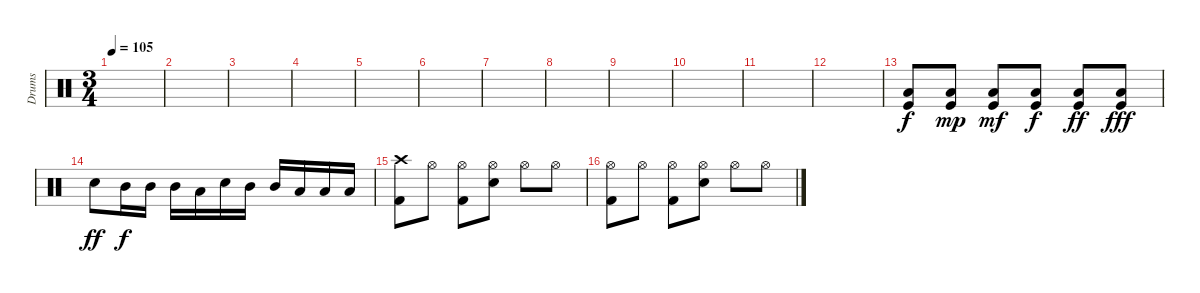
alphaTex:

\track ("Drums" "Drums") {instrument percussion}
\staff {score}
\articulation defaults
\ts (3 4)
\tempo 105
\clef neutral
\ks c
|
|
|
|
|
|
|
|
|
|
|
|
("Low Tom (hit)" "Kick (hit)").8 ("Low Tom (hit)" "Kick (hit)").8{dy mp} ("Low Tom (hit)" "Kick (hit)").8{dy mf} ("Low Tom (hit)" "Kick (hit)").8{dy f} ("Low Tom (hit)" "Kick (hit)").8{dy ff} ("Low Tom (hit)" "Kick (hit)").8{dy fff} |
"Snare (hit) 2".8{dy ff} "Mid Tom (hit)".16{dy f} "Mid Tom (hit)".16 "Mid Tom (hit)".16 "Low Tom (hit)".16 "Snare (hit) 2".16 "Mid Tom (hit)".16 "Mid Tom (hit)".16 "Low Tom (hit)".16 "Low Tom (hit)".16 "Low Tom (hit)".16 |
("Crash high (hit)" "Kick (hit) 2").8{volume 8} "Hi-Hat (open)".8 ("Hi-Hat (open)" "Kick (hit) 2").8 ("Hi-Hat (open)" "Snare (hit) 2").8 "Hi-Hat (open)".8 "Hi-Hat (open)".8 |
("Hi-Hat (open)" "Kick (hit) 2").8 "Hi-Hat (open)".8 ("Hi-Hat (open)" "Kick (hit) 2").8 ("Hi-Hat (open)" "Snare (hit) 2").8 "Hi-Hat (open)".8 "Hi-Hat (open)".8
